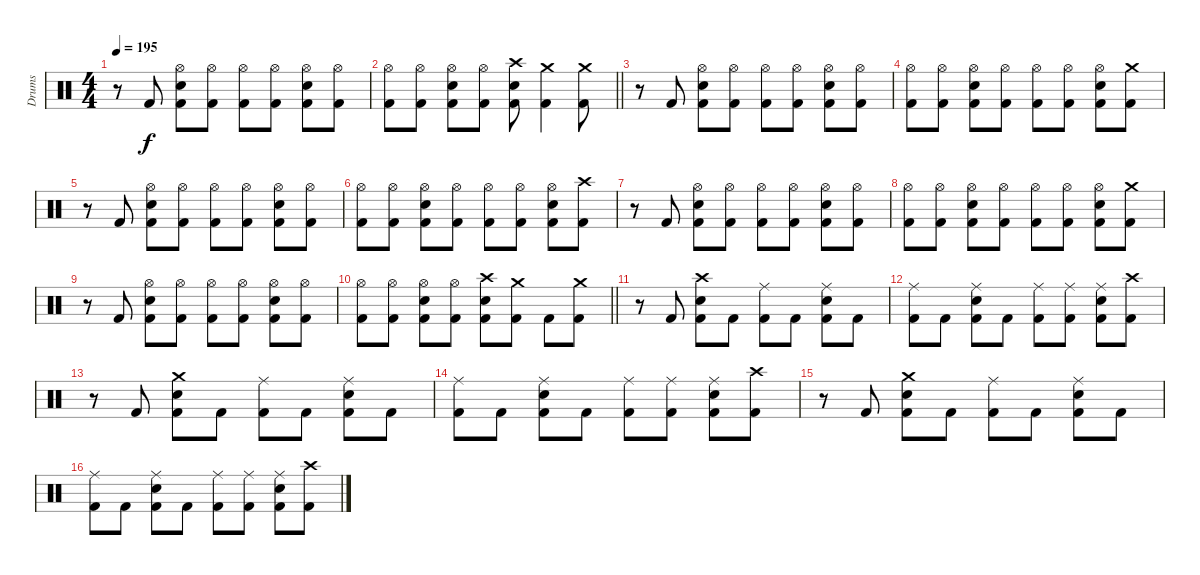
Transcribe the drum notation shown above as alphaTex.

\track ("Drums" "Drums") {instrument percussion}
\staff {score}
\articulation defaults
\ts (4 4)
\tempo 195
\clef neutral
\ks c
r.8{dy f} "Kick (hit) 2".8 ("Hi-Hat (open)" "Electric Snare (hit)" "Kick (hit) 2").8 ("Hi-Hat (open)" "Kick (hit) 2").8 ("Hi-Hat (open)" "Kick (hit) 2").8 ("Hi-Hat (open)" "Kick (hit) 2").8 ("Hi-Hat (open)" "Electric Snare (hit)" "Kick (hit) 2").8 ("Hi-Hat (open)" "Kick (hit) 2").8 |
\barLineRight lightlight
("Hi-Hat (open)" "Kick (hit) 2").8 ("Hi-Hat (open)" "Kick (hit) 2").8 ("Hi-Hat (open)" "Electric Snare (hit)" "Kick (hit) 2").8 ("Hi-Hat (open)" "Kick (hit) 2").8 ("Crash high (hit)" "Electric Snare (hit)" "Kick (hit) 2").8 ("Crash medium (hit)" "Kick (hit) 2").4 ("Crash medium (hit)" "Kick (hit) 2").8 |
r.8 "Kick (hit) 2".8 ("Hi-Hat (open)" "Electric Snare (hit)" "Kick (hit) 2").8 ("Hi-Hat (open)" "Kick (hit) 2").8 ("Hi-Hat (open)" "Kick (hit) 2").8 ("Hi-Hat (open)" "Kick (hit) 2").8 ("Hi-Hat (open)" "Electric Snare (hit)" "Kick (hit) 2").8 ("Hi-Hat (open)" "Kick (hit) 2").8 |
("Hi-Hat (open)" "Kick (hit) 2").8 ("Hi-Hat (open)" "Kick (hit) 2").8 ("Hi-Hat (open)" "Electric Snare (hit)" "Kick (hit) 2").8 ("Hi-Hat (open)" "Kick (hit) 2").8 ("Hi-Hat (open)" "Kick (hit) 2").8 ("Hi-Hat (open)" "Kick (hit) 2").8 ("Hi-Hat (open)" "Electric Snare (hit)" "Kick (hit) 2").8 ("Crash medium (hit)" "Kick (hit) 2").8 |
r.8 "Kick (hit) 2".8 ("Hi-Hat (open)" "Electric Snare (hit)" "Kick (hit) 2").8 ("Hi-Hat (open)" "Kick (hit) 2").8 ("Hi-Hat (open)" "Kick (hit) 2").8 ("Hi-Hat (open)" "Kick (hit) 2").8 ("Hi-Hat (open)" "Electric Snare (hit)" "Kick (hit) 2").8 ("Hi-Hat (open)" "Kick (hit) 2").8 |
("Hi-Hat (open)" "Kick (hit) 2").8 ("Hi-Hat (open)" "Kick (hit) 2").8 ("Hi-Hat (open)" "Electric Snare (hit)" "Kick (hit) 2").8 ("Hi-Hat (open)" "Kick (hit) 2").8 ("Hi-Hat (open)" "Kick (hit) 2").8 ("Hi-Hat (open)" "Kick (hit) 2").8 ("Hi-Hat (open)" "Electric Snare (hit)" "Kick (hit) 2").8 ("Crash high (hit)" "Kick (hit) 2").8 |
r.8 "Kick (hit) 2".8 ("Hi-Hat (open)" "Electric Snare (hit)" "Kick (hit) 2").8 ("Hi-Hat (open)" "Kick (hit) 2").8 ("Hi-Hat (open)" "Kick (hit) 2").8 ("Hi-Hat (open)" "Kick (hit) 2").8 ("Hi-Hat (open)" "Electric Snare (hit)" "Kick (hit) 2").8 ("Hi-Hat (open)" "Kick (hit) 2").8 |
("Hi-Hat (open)" "Kick (hit) 2").8 ("Hi-Hat (open)" "Kick (hit) 2").8 ("Hi-Hat (open)" "Electric Snare (hit)" "Kick (hit) 2").8 ("Hi-Hat (open)" "Kick (hit) 2").8 ("Hi-Hat (open)" "Kick (hit) 2").8 ("Hi-Hat (open)" "Kick (hit) 2").8 ("Hi-Hat (open)" "Electric Snare (hit)" "Kick (hit) 2").8 ("Crash medium (hit)" "Kick (hit) 2").8 |
r.8 "Kick (hit) 2".8 ("Hi-Hat (open)" "Electric Snare (hit)" "Kick (hit) 2").8 ("Hi-Hat (open)" "Kick (hit) 2").8 ("Hi-Hat (open)" "Kick (hit) 2").8 ("Hi-Hat (open)" "Kick (hit) 2").8 ("Hi-Hat (open)" "Electric Snare (hit)" "Kick (hit) 2").8 ("Hi-Hat (open)" "Kick (hit) 2").8 |
\barLineRight lightlight
("Hi-Hat (open)" "Kick (hit) 2").8 ("Hi-Hat (open)" "Kick (hit) 2").8 ("Hi-Hat (open)" "Electric Snare (hit)" "Kick (hit) 2").8 ("Hi-Hat (open)" "Kick (hit) 2").8 ("Crash high (hit)" "Electric Snare (hit)" "Kick (hit) 2").8 ("Crash medium (hit)" "Kick (hit) 2").8 "Kick (hit) 2".8 ("Crash medium (hit)" "Kick (hit) 2").8 |
\section ("" "")
r.8 "Kick (hit) 2".8 ("Crash high (hit)" "Electric Snare (hit)" "Kick (hit) 2").8 "Kick (hit) 2".8 ("Ride (middle)" "Kick (hit) 2").8 "Kick (hit) 2".8 ("Ride (middle)" "Electric Snare (hit)" "Kick (hit) 2").8 "Kick (hit) 2".8 |
("Ride (middle)" "Kick (hit) 2").8 "Kick (hit) 2".8 ("Ride (middle)" "Electric Snare (hit)" "Kick (hit) 2").8 "Kick (hit) 2".8 ("Ride (middle)" "Kick (hit) 2").8 ("Ride (middle)" "Kick (hit) 2").8 ("Ride (middle)" "Electric Snare (hit)" "Kick (hit) 2").8 ("Crash high (hit)" "Kick (hit) 2").8 |
r.8 "Kick (hit) 2".8 ("Crash medium (hit)" "Electric Snare (hit)" "Kick (hit) 2").8 "Kick (hit) 2".8 ("Ride (middle)" "Kick (hit) 2").8 "Kick (hit) 2".8 ("Ride (middle)" "Electric Snare (hit)" "Kick (hit) 2").8 "Kick (hit) 2".8 |
("Ride (middle)" "Kick (hit) 2").8 "Kick (hit) 2".8 ("Ride (middle)" "Electric Snare (hit)" "Kick (hit) 2").8 "Kick (hit) 2".8 ("Ride (middle)" "Kick (hit) 2").8 ("Ride (middle)" "Kick (hit) 2").8 ("Ride (middle)" "Electric Snare (hit)" "Kick (hit) 2").8 ("Crash high (hit)" "Kick (hit) 2").8 |
r.8 "Kick (hit) 2".8 ("Crash medium (hit)" "Electric Snare (hit)" "Kick (hit) 2").8 "Kick (hit) 2".8 ("Ride (middle)" "Kick (hit) 2").8 "Kick (hit) 2".8 ("Ride (middle)" "Electric Snare (hit)" "Kick (hit) 2").8 "Kick (hit) 2".8 |
("Ride (middle)" "Kick (hit) 2").8 "Kick (hit) 2".8 ("Ride (middle)" "Electric Snare (hit)" "Kick (hit) 2").8 "Kick (hit) 2".8 ("Ride (middle)" "Kick (hit) 2").8 ("Ride (middle)" "Kick (hit) 2").8 ("Ride (middle)" "Electric Snare (hit)" "Kick (hit) 2").8 ("Crash high (hit)" "Kick (hit) 2").8
